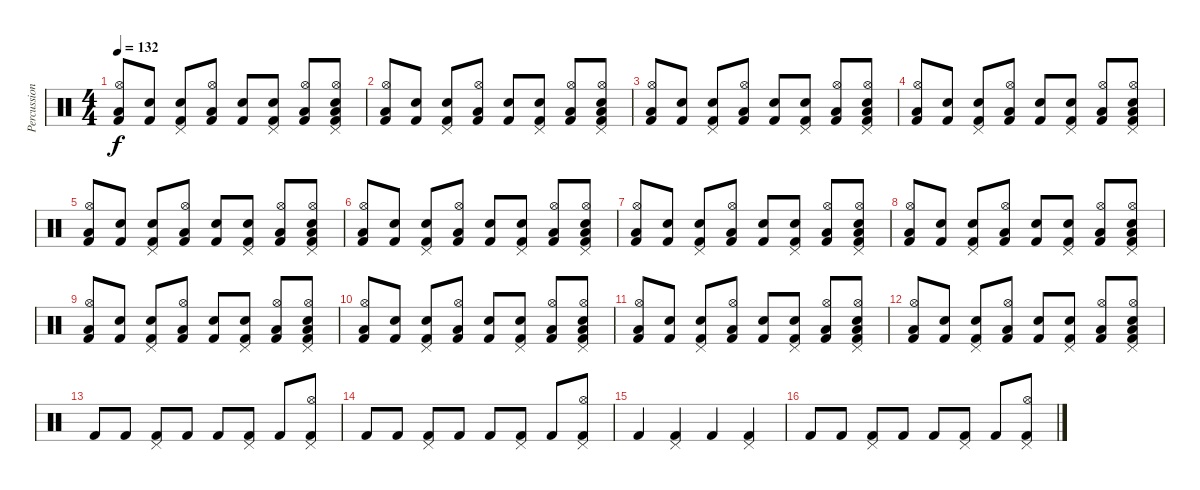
\track ("Percussion" "Percussion") {instrument percussion}
\staff {score}
\articulation defaults
\ts (4 4)
\tempo 132
\clef neutral
\ks c
("Kick (hit) 2" "Hi-Hat (open)" "Low Floor Tom (hit)").8{dy f} ("Kick (hit) 2" "Snare (hit) 2").8 ("Kick (hit) 2" "Pedal Hi-Hat (hit)" "Snare (hit) 2").8 ("Kick (hit) 2" "Hi-Hat (open)" "Low Floor Tom (hit)").8 ("Kick (hit) 2" "Snare (hit) 2").8 ("Kick (hit) 2" "Pedal Hi-Hat (hit)" "Snare (hit) 2").8 ("Kick (hit) 2" "Hi-Hat (open)" "Low Floor Tom (hit)").8 ("Kick (hit) 2" "Pedal Hi-Hat (hit)" "Hi-Hat (open)" "Snare (hit) 2" "Low Floor Tom (hit)").8 |
("Kick (hit) 2" "Hi-Hat (open)" "Low Floor Tom (hit)").8 ("Kick (hit) 2" "Snare (hit) 2").8 ("Kick (hit) 2" "Pedal Hi-Hat (hit)" "Snare (hit) 2").8 ("Kick (hit) 2" "Hi-Hat (open)" "Low Floor Tom (hit)").8 ("Kick (hit) 2" "Snare (hit) 2").8 ("Kick (hit) 2" "Pedal Hi-Hat (hit)" "Snare (hit) 2").8 ("Kick (hit) 2" "Hi-Hat (open)" "Low Floor Tom (hit)").8 ("Kick (hit) 2" "Pedal Hi-Hat (hit)" "Hi-Hat (open)" "Snare (hit) 2" "Low Floor Tom (hit)").8 |
("Kick (hit) 2" "Hi-Hat (open)" "Low Floor Tom (hit)").8 ("Kick (hit) 2" "Snare (hit) 2").8 ("Kick (hit) 2" "Pedal Hi-Hat (hit)" "Snare (hit) 2").8 ("Kick (hit) 2" "Hi-Hat (open)" "Low Floor Tom (hit)").8 ("Kick (hit) 2" "Snare (hit) 2").8 ("Kick (hit) 2" "Pedal Hi-Hat (hit)" "Snare (hit) 2").8 ("Kick (hit) 2" "Hi-Hat (open)" "Low Floor Tom (hit)").8 ("Kick (hit) 2" "Pedal Hi-Hat (hit)" "Hi-Hat (open)" "Snare (hit) 2" "Low Floor Tom (hit)").8 |
("Kick (hit) 2" "Hi-Hat (open)" "Low Floor Tom (hit)").8 ("Kick (hit) 2" "Snare (hit) 2").8 ("Kick (hit) 2" "Pedal Hi-Hat (hit)" "Snare (hit) 2").8 ("Kick (hit) 2" "Hi-Hat (open)" "Low Floor Tom (hit)").8 ("Kick (hit) 2" "Snare (hit) 2").8 ("Kick (hit) 2" "Pedal Hi-Hat (hit)" "Snare (hit) 2").8 ("Kick (hit) 2" "Hi-Hat (open)" "Low Floor Tom (hit)").8 ("Kick (hit) 2" "Pedal Hi-Hat (hit)" "Hi-Hat (open)" "Snare (hit) 2" "Low Floor Tom (hit)").8 |
("Kick (hit) 2" "Hi-Hat (open)" "Low Floor Tom (hit)").8 ("Kick (hit) 2" "Snare (hit) 2").8 ("Kick (hit) 2" "Pedal Hi-Hat (hit)" "Snare (hit) 2").8 ("Kick (hit) 2" "Hi-Hat (open)" "Low Floor Tom (hit)").8 ("Kick (hit) 2" "Snare (hit) 2").8 ("Kick (hit) 2" "Pedal Hi-Hat (hit)" "Snare (hit) 2").8 ("Kick (hit) 2" "Hi-Hat (open)" "Low Floor Tom (hit)").8 ("Kick (hit) 2" "Pedal Hi-Hat (hit)" "Hi-Hat (open)" "Snare (hit) 2" "Low Floor Tom (hit)").8 |
("Kick (hit) 2" "Hi-Hat (open)" "Low Floor Tom (hit)").8 ("Kick (hit) 2" "Snare (hit) 2").8 ("Kick (hit) 2" "Pedal Hi-Hat (hit)" "Snare (hit) 2").8 ("Kick (hit) 2" "Hi-Hat (open)" "Low Floor Tom (hit)").8 ("Kick (hit) 2" "Snare (hit) 2").8 ("Kick (hit) 2" "Pedal Hi-Hat (hit)" "Snare (hit) 2").8 ("Kick (hit) 2" "Hi-Hat (open)" "Low Floor Tom (hit)").8 ("Kick (hit) 2" "Pedal Hi-Hat (hit)" "Hi-Hat (open)" "Snare (hit) 2" "Low Floor Tom (hit)").8 |
("Kick (hit) 2" "Hi-Hat (open)" "Low Floor Tom (hit)").8 ("Kick (hit) 2" "Snare (hit) 2").8 ("Kick (hit) 2" "Pedal Hi-Hat (hit)" "Snare (hit) 2").8 ("Kick (hit) 2" "Hi-Hat (open)" "Low Floor Tom (hit)").8 ("Kick (hit) 2" "Snare (hit) 2").8 ("Kick (hit) 2" "Pedal Hi-Hat (hit)" "Snare (hit) 2").8 ("Kick (hit) 2" "Hi-Hat (open)" "Low Floor Tom (hit)").8 ("Kick (hit) 2" "Pedal Hi-Hat (hit)" "Hi-Hat (open)" "Snare (hit) 2" "Low Floor Tom (hit)").8 |
("Kick (hit) 2" "Hi-Hat (open)" "Low Floor Tom (hit)").8 ("Kick (hit) 2" "Snare (hit) 2").8 ("Kick (hit) 2" "Pedal Hi-Hat (hit)" "Snare (hit) 2").8 ("Kick (hit) 2" "Hi-Hat (open)" "Low Floor Tom (hit)").8 ("Kick (hit) 2" "Snare (hit) 2").8 ("Kick (hit) 2" "Pedal Hi-Hat (hit)" "Snare (hit) 2").8 ("Kick (hit) 2" "Hi-Hat (open)" "Low Floor Tom (hit)").8 ("Kick (hit) 2" "Pedal Hi-Hat (hit)" "Hi-Hat (open)" "Snare (hit) 2" "Low Floor Tom (hit)").8 |
("Kick (hit) 2" "Hi-Hat (open)" "Low Floor Tom (hit)").8 ("Kick (hit) 2" "Snare (hit) 2").8 ("Kick (hit) 2" "Pedal Hi-Hat (hit)" "Snare (hit) 2").8 ("Kick (hit) 2" "Hi-Hat (open)" "Low Floor Tom (hit)").8 ("Kick (hit) 2" "Snare (hit) 2").8 ("Kick (hit) 2" "Pedal Hi-Hat (hit)" "Snare (hit) 2").8 ("Kick (hit) 2" "Hi-Hat (open)" "Low Floor Tom (hit)").8 ("Kick (hit) 2" "Pedal Hi-Hat (hit)" "Hi-Hat (open)" "Snare (hit) 2" "Low Floor Tom (hit)").8 |
("Kick (hit) 2" "Hi-Hat (open)" "Low Floor Tom (hit)").8 ("Kick (hit) 2" "Snare (hit) 2").8 ("Kick (hit) 2" "Pedal Hi-Hat (hit)" "Snare (hit) 2").8 ("Kick (hit) 2" "Hi-Hat (open)" "Low Floor Tom (hit)").8 ("Kick (hit) 2" "Snare (hit) 2").8 ("Kick (hit) 2" "Pedal Hi-Hat (hit)" "Snare (hit) 2").8 ("Kick (hit) 2" "Hi-Hat (open)" "Low Floor Tom (hit)").8 ("Kick (hit) 2" "Pedal Hi-Hat (hit)" "Hi-Hat (open)" "Snare (hit) 2" "Low Floor Tom (hit)").8 |
("Kick (hit) 2" "Hi-Hat (open)" "Low Floor Tom (hit)").8 ("Kick (hit) 2" "Snare (hit) 2").8 ("Kick (hit) 2" "Pedal Hi-Hat (hit)" "Snare (hit) 2").8 ("Kick (hit) 2" "Hi-Hat (open)" "Low Floor Tom (hit)").8 ("Kick (hit) 2" "Snare (hit) 2").8 ("Kick (hit) 2" "Pedal Hi-Hat (hit)" "Snare (hit) 2").8 ("Kick (hit) 2" "Hi-Hat (open)" "Low Floor Tom (hit)").8 ("Kick (hit) 2" "Pedal Hi-Hat (hit)" "Hi-Hat (open)" "Snare (hit) 2" "Low Floor Tom (hit)").8 |
("Kick (hit) 2" "Hi-Hat (open)" "Low Floor Tom (hit)").8 ("Kick (hit) 2" "Snare (hit) 2").8 ("Kick (hit) 2" "Pedal Hi-Hat (hit)" "Snare (hit) 2").8 ("Kick (hit) 2" "Hi-Hat (open)" "Low Floor Tom (hit)").8 ("Kick (hit) 2" "Snare (hit) 2").8 ("Kick (hit) 2" "Pedal Hi-Hat (hit)" "Snare (hit) 2").8 ("Kick (hit) 2" "Hi-Hat (open)" "Low Floor Tom (hit)").8 ("Kick (hit) 2" "Pedal Hi-Hat (hit)" "Hi-Hat (open)" "Snare (hit) 2" "Low Floor Tom (hit)").8 |
"Kick (hit) 2".8 "Kick (hit) 2".8 ("Kick (hit) 2" "Pedal Hi-Hat (hit)").8 "Kick (hit) 2".8 "Kick (hit) 2".8 ("Kick (hit) 2" "Pedal Hi-Hat (hit)").8 "Kick (hit) 2".8 ("Kick (hit) 2" "Pedal Hi-Hat (hit)" "Hi-Hat (open)").8 |
"Kick (hit) 2".8 "Kick (hit) 2".8 ("Kick (hit) 2" "Pedal Hi-Hat (hit)").8 "Kick (hit) 2".8 "Kick (hit) 2".8 ("Kick (hit) 2" "Pedal Hi-Hat (hit)").8 "Kick (hit) 2".8 ("Kick (hit) 2" "Pedal Hi-Hat (hit)" "Hi-Hat (open)").8 |
"Kick (hit) 2".4 ("Kick (hit) 2" "Pedal Hi-Hat (hit)").4 "Kick (hit) 2".4 ("Kick (hit) 2" "Pedal Hi-Hat (hit)").4 |
"Kick (hit) 2".8 "Kick (hit) 2".8 ("Kick (hit) 2" "Pedal Hi-Hat (hit)").8 "Kick (hit) 2".8 "Kick (hit) 2".8 ("Kick (hit) 2" "Pedal Hi-Hat (hit)").8 "Kick (hit) 2".8 ("Kick (hit) 2" "Pedal Hi-Hat (hit)" "Hi-Hat (open)").8
